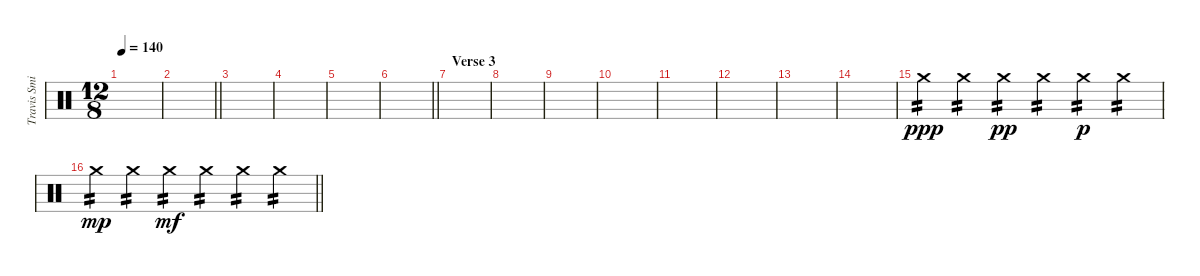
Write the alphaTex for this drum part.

\track ("Travis Smith" "Travis Smi") {instrument percussion}
\staff {score}
\articulation defaults
\ts (12 8)
\tempo 140
\clef neutral
\ks c
|
\barLineRight lightlight
|
|
|
|
\barLineRight lightlight
|
\section ("" "Verse 3")
|
|
|
|
|
|
|
|
"Crash medium (hit)".4{tp 2 dy ppp} "Crash medium (hit)".4{tp 2} "Crash medium (hit)".4{tp 2 dy pp} "Crash medium (hit)".4{tp 2} "Crash medium (hit)".4{tp 2 dy p} "Crash medium (hit)".4{tp 2} |
\barLineRight lightlight "Crash medium (hit)".4{tp 2 dy mp} "Crash medium (hit)".4{tp 2} "Crash medium (hit)".4{tp 2 dy mf} "Crash medium (hit)".4{tp 2} "Crash medium (hit)".4{tp 2} "Crash medium (hit)".4{tp 2}
